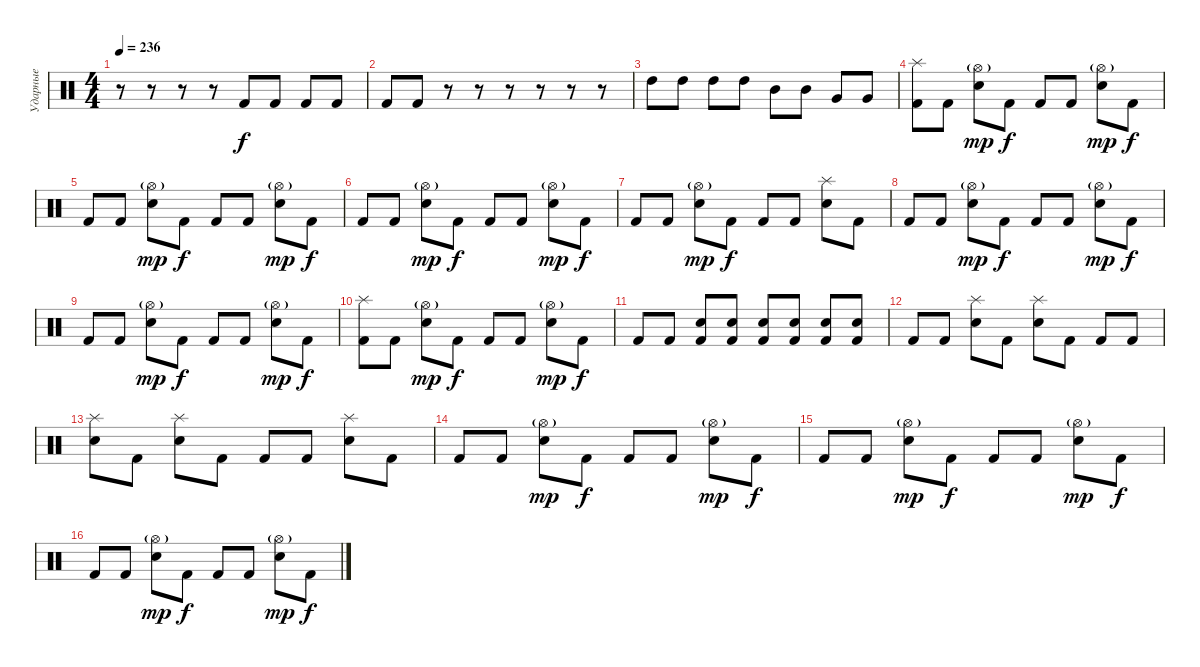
\track ("Ударные" "Ударные") {instrument percussion}
\staff {score}
\articulation defaults
\ts (4 4)
\tempo 236
\clef neutral
\ks c
r.8{dy f} r.8 r.8 r.8 "Kick (hit) 2".8 "Kick (hit) 2".8 "Kick (hit) 2".8 "Kick (hit) 2".8 |
"Kick (hit) 2".8 "Kick (hit) 2".8 r.8 r.8 r.8 r.8 r.8 r.8 |
"High Tom (hit)".8 "High Tom (hit)".8 "High Tom (hit)".8 "High Tom (hit)".8 "Mid Tom (hit)".8 "Mid Tom (hit)".8 "Very Low Tom (hit)".8 "Very Low Tom (hit)".8 |
("Splash (hit)" "Kick (hit) 2").8 "Kick (hit) 2".8 ("Hi-Hat (open)"{g} "Electric Snare (hit)").8{dy mp} "Kick (hit) 2".8{dy f} "Kick (hit) 2".8 "Kick (hit) 2".8 ("Hi-Hat (open)"{g} "Electric Snare (hit)").8{dy mp} "Kick (hit) 2".8{dy f} |
"Kick (hit) 2".8 "Kick (hit) 2".8 ("Hi-Hat (open)"{g} "Electric Snare (hit)").8{dy mp} "Kick (hit) 2".8{dy f} "Kick (hit) 2".8 "Kick (hit) 2".8 ("Hi-Hat (open)"{g} "Electric Snare (hit)").8{dy mp} "Kick (hit) 2".8{dy f} |
"Kick (hit) 2".8 "Kick (hit) 2".8 ("Hi-Hat (open)"{g} "Electric Snare (hit)").8{dy mp} "Kick (hit) 2".8{dy f} "Kick (hit) 2".8 "Kick (hit) 2".8 ("Hi-Hat (open)"{g} "Electric Snare (hit)").8{dy mp} "Kick (hit) 2".8{dy f} |
"Kick (hit) 2".8 "Kick (hit) 2".8 ("Hi-Hat (open)"{g} "Electric Snare (hit)").8{dy mp} "Kick (hit) 2".8{dy f} "Kick (hit) 2".8 "Kick (hit) 2".8 ("Splash (hit)" "Electric Snare (hit)").8 "Kick (hit) 2".8 |
"Kick (hit) 2".8 "Kick (hit) 2".8 ("Hi-Hat (open)"{g} "Electric Snare (hit)").8{dy mp} "Kick (hit) 2".8{dy f} "Kick (hit) 2".8 "Kick (hit) 2".8 ("Hi-Hat (open)"{g} "Electric Snare (hit)").8{dy mp} "Kick (hit) 2".8{dy f} |
"Kick (hit) 2".8 "Kick (hit) 2".8 ("Hi-Hat (open)"{g} "Electric Snare (hit)").8{dy mp} "Kick (hit) 2".8{dy f} "Kick (hit) 2".8 "Kick (hit) 2".8 ("Hi-Hat (open)"{g} "Electric Snare (hit)").8{dy mp} "Kick (hit) 2".8{dy f} |
("Splash (hit)" "Kick (hit) 2").8 "Kick (hit) 2".8 ("Hi-Hat (open)"{g} "Electric Snare (hit)").8{dy mp} "Kick (hit) 2".8{dy f} "Kick (hit) 2".8 "Kick (hit) 2".8 ("Hi-Hat (open)"{g} "Electric Snare (hit)").8{dy mp} "Kick (hit) 2".8{dy f} |
"Kick (hit) 2".8 "Kick (hit) 2".8 ("Electric Snare (hit)" "Kick (hit) 2").8 ("Electric Snare (hit)" "Kick (hit) 2").8 ("Electric Snare (hit)" "Kick (hit) 2").8 ("Electric Snare (hit)" "Kick (hit) 2").8 ("Electric Snare (hit)" "Kick (hit) 2").8 ("Electric Snare (hit)" "Kick (hit) 2").8 |
"Kick (hit) 2".8 "Kick (hit) 2".8 ("Splash (hit)" "Electric Snare (hit)").8 "Kick (hit) 2".8 ("Splash (hit)" "Electric Snare (hit)").8 "Kick (hit) 2".8 "Kick (hit) 2".8 "Kick (hit) 2".8 |
("Splash (hit)" "Electric Snare (hit)").8 "Kick (hit) 2".8 ("Splash (hit)" "Electric Snare (hit)").8 "Kick (hit) 2".8 "Kick (hit) 2".8 "Kick (hit) 2".8 ("Splash (hit)" "Electric Snare (hit)").8 "Kick (hit) 2".8 |
"Kick (hit) 2".8 "Kick (hit) 2".8 ("Hi-Hat (open)"{g} "Electric Snare (hit)").8{dy mp} "Kick (hit) 2".8{dy f} "Kick (hit) 2".8 "Kick (hit) 2".8 ("Hi-Hat (open)"{g} "Electric Snare (hit)").8{dy mp} "Kick (hit) 2".8{dy f} |
"Kick (hit) 2".8 "Kick (hit) 2".8 ("Hi-Hat (open)"{g} "Electric Snare (hit)").8{dy mp} "Kick (hit) 2".8{dy f} "Kick (hit) 2".8 "Kick (hit) 2".8 ("Hi-Hat (open)"{g} "Electric Snare (hit)").8{dy mp} "Kick (hit) 2".8{dy f} |
"Kick (hit) 2".8 "Kick (hit) 2".8 ("Hi-Hat (open)"{g} "Electric Snare (hit)").8{dy mp} "Kick (hit) 2".8{dy f} "Kick (hit) 2".8 "Kick (hit) 2".8 ("Hi-Hat (open)"{g} "Electric Snare (hit)").8{dy mp} "Kick (hit) 2".8{dy f}
